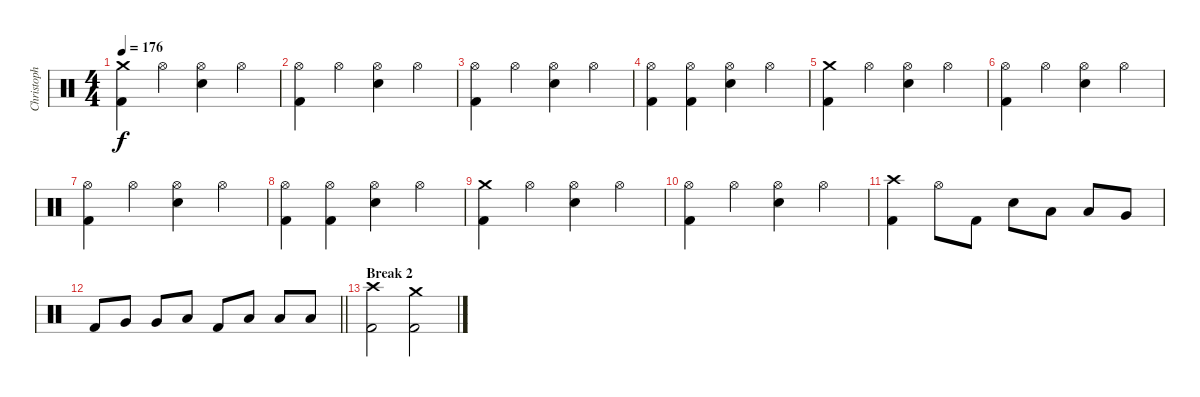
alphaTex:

\track ("Christoph" "Christoph") {instrument percussion}
\staff {score}
\articulation defaults
\ts (4 4)
\tempo 176
\clef neutral
\ks c
("Crash medium (hit)" "Kick (hit) 2").4{dy f} "Hi-Hat (open)".4 ("Hi-Hat (open)" "Snare (hit) 2").4 "Hi-Hat (open)".4 |
("Hi-Hat (open)" "Kick (hit) 2").4 "Hi-Hat (open)".4 ("Hi-Hat (open)" "Snare (hit) 2").4 "Hi-Hat (open)".4 |
("Hi-Hat (open)" "Kick (hit) 2").4 "Hi-Hat (open)".4 ("Hi-Hat (open)" "Snare (hit) 2").4 "Hi-Hat (open)".4 |
("Hi-Hat (open)" "Kick (hit) 2").4 ("Hi-Hat (open)" "Kick (hit) 2").4 ("Hi-Hat (open)" "Snare (hit) 2").4 "Hi-Hat (open)".4 |
("Crash medium (hit)" "Kick (hit) 2").4 "Hi-Hat (open)".4 ("Hi-Hat (open)" "Snare (hit) 2").4 "Hi-Hat (open)".4 |
("Hi-Hat (open)" "Kick (hit) 2").4 "Hi-Hat (open)".4 ("Hi-Hat (open)" "Snare (hit) 2").4 "Hi-Hat (open)".4 |
("Hi-Hat (open)" "Kick (hit) 2").4 "Hi-Hat (open)".4 ("Hi-Hat (open)" "Snare (hit) 2").4 "Hi-Hat (open)".4 |
("Hi-Hat (open)" "Kick (hit) 2").4 ("Hi-Hat (open)" "Kick (hit) 2").4 ("Hi-Hat (open)" "Snare (hit) 2").4 "Hi-Hat (open)".4 |
("Crash medium (hit)" "Kick (hit) 2").4 "Hi-Hat (open)".4 ("Hi-Hat (open)" "Snare (hit) 2").4 "Hi-Hat (open)".4 |
("Hi-Hat (open)" "Kick (hit) 2").4 "Hi-Hat (open)".4 ("Hi-Hat (open)" "Snare (hit) 2").4 "Hi-Hat (open)".4 |
("Crash high (hit)" "Kick (hit) 2").4 "Hi-Hat (open)".8 "Kick (hit) 2".8 "Snare (hit) 2".8 "Low Tom (hit)".8 "Low Tom (hit)".8 "Very Low Tom (hit)".8 |
\barLineRight lightlight "Kick (hit) 2".8 "Very Low Tom (hit)".8 "Very Low Tom (hit)".8 "Low Floor Tom (hit)".8 "Kick (hit) 2".8 "Low Floor Tom (hit)".8 "Low Floor Tom (hit)".8 "Low Floor Tom (hit)".8
|
\section ("" "Break 2")
("Crash high (hit)" "Kick (hit) 2").2 ("Crash medium (hit)" "Kick (hit) 2").2
